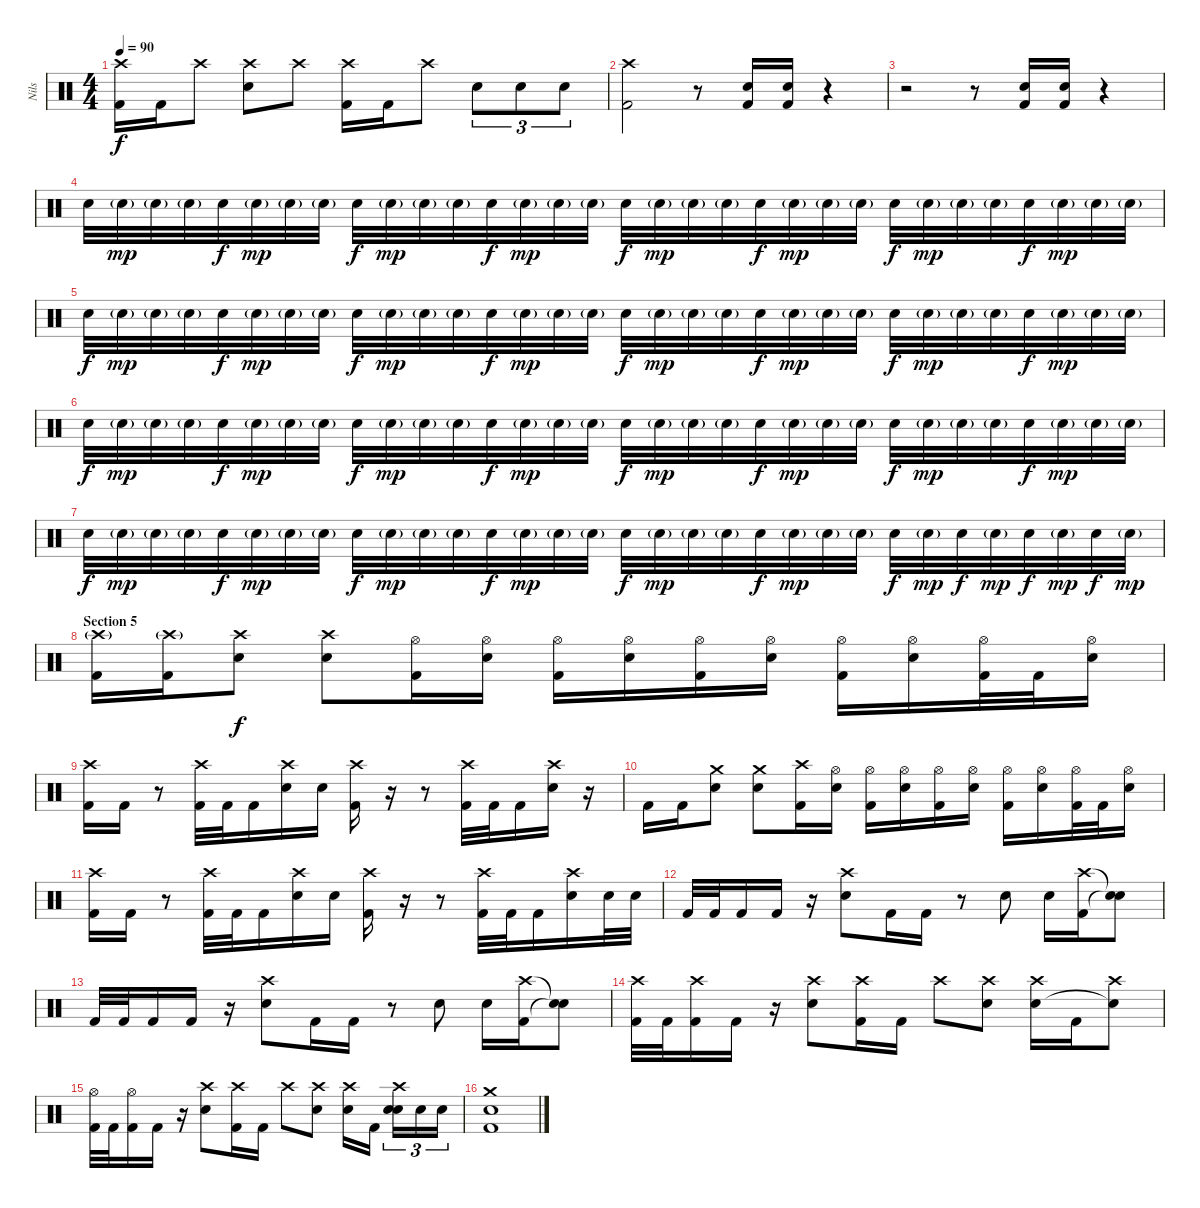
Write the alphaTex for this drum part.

\track ("Nils" "Nils") {instrument percussion}
\staff {score}
\articulation defaults
\ts (4 4)
\tempo 90
\clef neutral
\ks c
("Crash high (hit)" "Kick (hit) 2").16{dy f} "Kick (hit) 2".16 "Crash high (hit)".8 ("Crash high (hit)" "Snare (hit) 2").8 "Crash high (hit)".8 ("Crash high (hit)" "Kick (hit) 2").16 "Kick (hit) 2".16 "Crash high (hit)".8 "Snare (hit) 2".8{tu (3 2)} "Snare (hit) 2".8{tu (3 2)} "Snare (hit) 2".8{tu (3 2)} |
("Crash high (hit)" "Kick (hit) 2").2 r.8 ("Snare (hit) 2" "Kick (hit) 2").16 ("Snare (hit) 2" "Kick (hit) 2").16 r.4 |
r.2 r.8 ("Snare (hit) 2" "Kick (hit) 2").16 ("Snare (hit) 2" "Kick (hit) 2").16 r.4{volume 4} |
"Snare (hit) 2".32{volume 14} "Snare (hit) 2"{g}.32{dy mp} "Snare (hit) 2"{g}.32 "Snare (hit) 2"{g}.32 "Snare (hit) 2".32{dy f} "Snare (hit) 2"{g}.32{dy mp} "Snare (hit) 2"{g}.32 "Snare (hit) 2"{g}.32 "Snare (hit) 2".32{dy f} "Snare (hit) 2"{g}.32{dy mp} "Snare (hit) 2"{g}.32 "Snare (hit) 2"{g}.32 "Snare (hit) 2".32{dy f} "Snare (hit) 2"{g}.32{dy mp} "Snare (hit) 2"{g}.32 "Snare (hit) 2"{g}.32 "Snare (hit) 2".32{dy f} "Snare (hit) 2"{g}.32{dy mp} "Snare (hit) 2"{g}.32 "Snare (hit) 2"{g}.32 "Snare (hit) 2".32{dy f} "Snare (hit) 2"{g}.32{dy mp} "Snare (hit) 2"{g}.32 "Snare (hit) 2"{g}.32 "Snare (hit) 2".32{dy f} "Snare (hit) 2"{g}.32{dy mp} "Snare (hit) 2"{g}.32 "Snare (hit) 2"{g}.32 "Snare (hit) 2".32{dy f} "Snare (hit) 2"{g}.32{dy mp} "Snare (hit) 2"{g}.32 "Snare (hit) 2"{g}.32 |
"Snare (hit) 2".32{dy f} "Snare (hit) 2"{g}.32{dy mp} "Snare (hit) 2"{g}.32 "Snare (hit) 2"{g}.32 "Snare (hit) 2".32{dy f} "Snare (hit) 2"{g}.32{dy mp} "Snare (hit) 2"{g}.32 "Snare (hit) 2"{g}.32 "Snare (hit) 2".32{dy f} "Snare (hit) 2"{g}.32{dy mp} "Snare (hit) 2"{g}.32 "Snare (hit) 2"{g}.32 "Snare (hit) 2".32{dy f} "Snare (hit) 2"{g}.32{dy mp} "Snare (hit) 2"{g}.32 "Snare (hit) 2"{g}.32 "Snare (hit) 2".32{dy f} "Snare (hit) 2"{g}.32{dy mp} "Snare (hit) 2"{g}.32 "Snare (hit) 2"{g}.32 "Snare (hit) 2".32{dy f} "Snare (hit) 2"{g}.32{dy mp} "Snare (hit) 2"{g}.32 "Snare (hit) 2"{g}.32 "Snare (hit) 2".32{dy f} "Snare (hit) 2"{g}.32{dy mp} "Snare (hit) 2"{g}.32 "Snare (hit) 2"{g}.32 "Snare (hit) 2".32{dy f} "Snare (hit) 2"{g}.32{dy mp} "Snare (hit) 2"{g}.32 "Snare (hit) 2"{g}.32 |
"Snare (hit) 2".32{dy f} "Snare (hit) 2"{g}.32{dy mp} "Snare (hit) 2"{g}.32 "Snare (hit) 2"{g}.32 "Snare (hit) 2".32{dy f} "Snare (hit) 2"{g}.32{dy mp} "Snare (hit) 2"{g}.32 "Snare (hit) 2"{g}.32 "Snare (hit) 2".32{dy f} "Snare (hit) 2"{g}.32{dy mp} "Snare (hit) 2"{g}.32 "Snare (hit) 2"{g}.32 "Snare (hit) 2".32{dy f} "Snare (hit) 2"{g}.32{dy mp} "Snare (hit) 2"{g}.32 "Snare (hit) 2"{g}.32 "Snare (hit) 2".32{dy f} "Snare (hit) 2"{g}.32{dy mp} "Snare (hit) 2"{g}.32 "Snare (hit) 2"{g}.32 "Snare (hit) 2".32{dy f} "Snare (hit) 2"{g}.32{dy mp} "Snare (hit) 2"{g}.32 "Snare (hit) 2"{g}.32 "Snare (hit) 2".32{dy f} "Snare (hit) 2"{g}.32{dy mp} "Snare (hit) 2"{g}.32 "Snare (hit) 2"{g}.32 "Snare (hit) 2".32{dy f} "Snare (hit) 2"{g}.32{dy mp} "Snare (hit) 2"{g}.32 "Snare (hit) 2"{g}.32 |
"Snare (hit) 2".32{dy f} "Snare (hit) 2"{g}.32{dy mp} "Snare (hit) 2"{g}.32 "Snare (hit) 2"{g}.32 "Snare (hit) 2".32{dy f} "Snare (hit) 2"{g}.32{dy mp} "Snare (hit) 2"{g}.32 "Snare (hit) 2"{g}.32 "Snare (hit) 2".32{dy f} "Snare (hit) 2"{g}.32{dy mp} "Snare (hit) 2"{g}.32 "Snare (hit) 2"{g}.32 "Snare (hit) 2".32{dy f} "Snare (hit) 2"{g}.32{dy mp} "Snare (hit) 2"{g}.32 "Snare (hit) 2"{g}.32 "Snare (hit) 2".32{dy f} "Snare (hit) 2"{g}.32{dy mp} "Snare (hit) 2"{g}.32 "Snare (hit) 2"{g}.32 "Snare (hit) 2".32{dy f} "Snare (hit) 2"{g}.32{dy mp} "Snare (hit) 2"{g}.32 "Snare (hit) 2"{g}.32 "Snare (hit) 2".32{dy f} "Snare (hit) 2"{g}.32{dy mp} "Snare (hit) 2".32{dy f} "Snare (hit) 2"{g}.32{dy mp} "Snare (hit) 2".32{dy f} "Snare (hit) 2"{g}.32{dy mp} "Snare (hit) 2".32{dy f} "Snare (hit) 2"{g}.32{dy mp} |
\section ("" "Section 5")
("Crash high (hit)"{g} "Kick (hit) 2").16 ("Crash high (hit)"{g} "Kick (hit) 2").16 ("Crash high (hit)" "Snare (hit) 2").8{dy f} ("Crash high (hit)" "Snare (hit) 2").8 ("Hi-Hat (open)" "Kick (hit) 2").16 ("Hi-Hat (open)" "Snare (hit) 2").16 ("Hi-Hat (open)" "Kick (hit) 2").16 ("Hi-Hat (open)" "Snare (hit) 2").16 ("Hi-Hat (open)" "Kick (hit) 2").16 ("Hi-Hat (open)" "Snare (hit) 2").16 ("Hi-Hat (open)" "Kick (hit) 2").16 ("Hi-Hat (open)" "Snare (hit) 2").16 ("Hi-Hat (open)" "Kick (hit) 2").32 "Kick (hit) 2".32 ("Hi-Hat (open)" "Snare (hit) 2").16 |
("Crash high (hit)" "Kick (hit) 2").16 "Kick (hit) 2".16 r.8 ("Crash high (hit)" "Kick (hit) 2").32 "Kick (hit) 2".32 "Kick (hit) 2".16 ("Crash high (hit)" "Snare (hit) 2").16 "Snare (hit) 2".16 ("Crash high (hit)" "Kick (hit) 2").16 r.16 r.8 ("Crash high (hit)" "Kick (hit) 2").32 "Kick (hit) 2".32 "Kick (hit) 2".16 ("Crash high (hit)" "Snare (hit) 2").16 r.16 |
"Kick (hit) 2".16 "Kick (hit) 2".16 ("Crash medium (hit)" "Snare (hit) 2").8 ("Crash medium (hit)" "Snare (hit) 2").8 ("Crash high (hit)" "Kick (hit) 2").16 ("Hi-Hat (open)" "Snare (hit) 2").16 ("Hi-Hat (open)" "Kick (hit) 2").16 ("Hi-Hat (open)" "Snare (hit) 2").16 ("Hi-Hat (open)" "Kick (hit) 2").16 ("Hi-Hat (open)" "Snare (hit) 2").16 ("Hi-Hat (open)" "Kick (hit) 2").16 ("Hi-Hat (open)" "Snare (hit) 2").16 ("Hi-Hat (open)" "Kick (hit) 2").32 "Kick (hit) 2".32 ("Hi-Hat (open)" "Snare (hit) 2").16 |
("Crash high (hit)" "Kick (hit) 2").16 "Kick (hit) 2".16 r.8 ("Crash high (hit)" "Kick (hit) 2").32 "Kick (hit) 2".32 "Kick (hit) 2".16 ("Crash high (hit)" "Snare (hit) 2").16 "Snare (hit) 2".16 ("Crash high (hit)" "Kick (hit) 2").16 r.16 r.8 ("Crash high (hit)" "Kick (hit) 2").32 "Kick (hit) 2".32 "Kick (hit) 2".16 ("Crash high (hit)" "Snare (hit) 2").16 "Snare (hit) 2".32 "Snare (hit) 2".32 |
"Kick (hit) 2".32 "Kick (hit) 2".32 "Kick (hit) 2".16 "Kick (hit) 2".16 r.16 ("Crash high (hit)" "Snare (hit) 2").8 "Kick (hit) 2".16 "Kick (hit) 2".16 r.8 "Snare (hit) 2".8 "Snare (hit) 2".16 ("Crash high (hit)" "Kick (hit) 2").16 ("Snare (hit)"{t} "Snare (hit)"{t}).8 |
"Kick (hit) 2".32 "Kick (hit) 2".32 "Kick (hit) 2".16 "Kick (hit) 2".16 r.16 ("Crash high (hit)" "Snare (hit) 2").8 "Kick (hit) 2".16 "Kick (hit) 2".16 r.8 "Snare (hit) 2".8 "Snare (hit) 2".16 ("Crash high (hit)" "Kick (hit) 2").16 ("Snare (hit)"{t} "Snare (hit)"{t}).8 |
("Crash high (hit)" "Kick (hit) 2").32 "Kick (hit) 2".32 ("Crash high (hit)" "Kick (hit) 2").16 "Kick (hit) 2".16 r.16 ("Crash high (hit)" "Snare (hit) 2").8 ("Crash high (hit)" "Kick (hit) 2").16 "Kick (hit) 2".16 "Crash high (hit)".8 ("Crash high (hit)" "Snare (hit) 2").8 ("Crash high (hit)" "Snare (hit) 2").16 "Kick (hit) 2".16 ("Crash high (hit)" "Snare (hit)"{t}).8 |
("Hi-Hat (open)" "Kick (hit) 2").32 "Kick (hit) 2".32 ("Hi-Hat (open)" "Kick (hit) 2").16 "Kick (hit) 2".16 r.16 ("Crash high (hit)" "Snare (hit) 2").8 ("Crash high (hit)" "Kick (hit) 2").16 "Kick (hit) 2".16 "Crash high (hit)".8 ("Crash high (hit)" "Snare (hit) 2").8 ("Crash high (hit)" "Snare (hit) 2").16 "Kick (hit) 2".16 ("Crash high (hit)" "Snare (hit) 2" "Snare (hit)").16{tu (3 2)} "Snare (hit) 2".16{tu (3 2)} "Snare (hit) 2".16{tu (3 2)} |
("Crash medium (hit)" "Snare (hit) 2" "Kick (hit) 2").1
